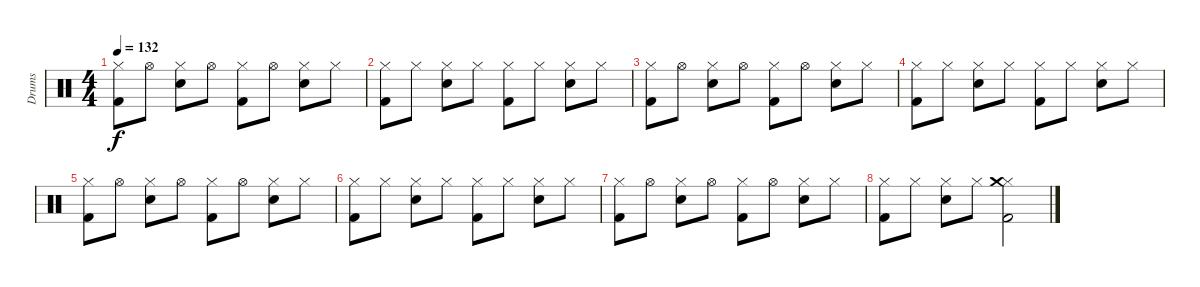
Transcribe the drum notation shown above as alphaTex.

\track ("Drums" "Drums") {instrument percussion}
\staff {score}
\articulation defaults
\ts (4 4)
\tempo 132
\clef neutral
\ks c
("Kick (hit) 2" "Hi-Hat (closed)").8{dy f} "Hi-Hat (open)".8 ("Electric Snare (hit)" "Hi-Hat (closed)").8 "Hi-Hat (open)".8 ("Kick (hit) 2" "Hi-Hat (closed)").8 "Hi-Hat (open)".8 ("Electric Snare (hit)" "Hi-Hat (closed)").8 "Hi-Hat (closed)".8 |
("Kick (hit) 2" "Hi-Hat (closed)").8 "Hi-Hat (closed)".8 ("Electric Snare (hit)" "Hi-Hat (closed)").8 "Hi-Hat (closed)".8 ("Kick (hit) 2" "Hi-Hat (closed)").8 "Hi-Hat (closed)".8 ("Electric Snare (hit)" "Hi-Hat (closed)").8 "Hi-Hat (closed)".8 |
("Kick (hit) 2" "Hi-Hat (closed)").8 "Hi-Hat (open)".8 ("Electric Snare (hit)" "Hi-Hat (closed)").8 "Hi-Hat (open)".8 ("Kick (hit) 2" "Hi-Hat (closed)").8 "Hi-Hat (open)".8 ("Electric Snare (hit)" "Hi-Hat (closed)").8 "Hi-Hat (closed)".8 |
("Kick (hit) 2" "Hi-Hat (closed)").8 "Hi-Hat (closed)".8 ("Electric Snare (hit)" "Hi-Hat (closed)").8 "Hi-Hat (closed)".8 ("Kick (hit) 2" "Hi-Hat (closed)").8 "Hi-Hat (closed)".8 ("Electric Snare (hit)" "Hi-Hat (closed)").8 "Hi-Hat (closed)".8 |
("Kick (hit) 2" "Hi-Hat (closed)").8 "Hi-Hat (open)".8 ("Electric Snare (hit)" "Hi-Hat (closed)").8 "Hi-Hat (open)".8 ("Kick (hit) 2" "Hi-Hat (closed)").8 "Hi-Hat (open)".8 ("Electric Snare (hit)" "Hi-Hat (closed)").8 "Hi-Hat (closed)".8 |
("Kick (hit) 2" "Hi-Hat (closed)").8 "Hi-Hat (closed)".8 ("Electric Snare (hit)" "Hi-Hat (closed)").8 "Hi-Hat (closed)".8 ("Kick (hit) 2" "Hi-Hat (closed)").8 "Hi-Hat (closed)".8 ("Electric Snare (hit)" "Hi-Hat (closed)").8 "Hi-Hat (closed)".8 |
("Kick (hit) 2" "Hi-Hat (closed)").8 "Hi-Hat (open)".8 ("Electric Snare (hit)" "Hi-Hat (closed)").8 "Hi-Hat (open)".8 ("Kick (hit) 2" "Hi-Hat (closed)").8 "Hi-Hat (open)".8 ("Electric Snare (hit)" "Hi-Hat (closed)").8 "Hi-Hat (closed)".8 |
("Kick (hit) 2" "Hi-Hat (closed)").8 "Hi-Hat (closed)".8 ("Electric Snare (hit)" "Hi-Hat (closed)").8 "Hi-Hat (closed)".8 ("Kick (hit) 2" "Hi-Hat (closed)" "Crash medium (hit)").2
